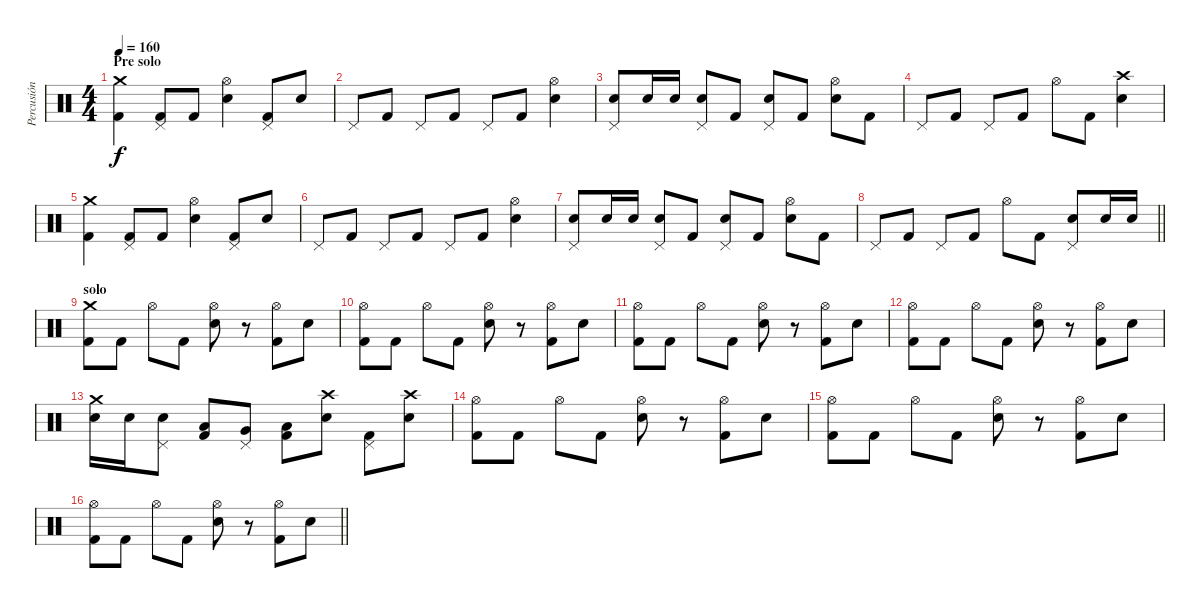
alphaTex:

\track ("Percusión" "Percusión") {instrument percussion}
\staff {score}
\articulation defaults
\ts (4 4)
\section ("" "Pre solo")
\tempo 160
\clef neutral
\ks c
("Crash medium (hit)" "Kick (hit) 2").4{dy f} ("Pedal Hi-Hat (hit)" "Kick (hit) 2").8 "Kick (hit) 2".8 ("Hi-Hat (open)" "Snare (hit) 2").4 ("Pedal Hi-Hat (hit)" "Kick (hit) 2").8 "Snare (hit) 2".8 |
"Pedal Hi-Hat (hit)".8 "Kick (hit) 2".8 "Pedal Hi-Hat (hit)".8 "Kick (hit) 2".8 "Pedal Hi-Hat (hit)".8 "Kick (hit) 2".8 ("Hi-Hat (open)" "Snare (hit) 2").4 |
("Pedal Hi-Hat (hit)" "Snare (hit) 2").8 "Snare (hit) 2".16 "Snare (hit) 2".16 ("Pedal Hi-Hat (hit)" "Snare (hit) 2").8 "Kick (hit) 2".8 ("Pedal Hi-Hat (hit)" "Snare (hit) 2").8 "Kick (hit) 2".8 ("Hi-Hat (open)" "Snare (hit) 2").8 "Kick (hit) 2".8 |
"Pedal Hi-Hat (hit)".8 "Kick (hit) 2".8 "Pedal Hi-Hat (hit)".8 "Kick (hit) 2".8 "Hi-Hat (open)".8 "Kick (hit) 2".8 ("Crash high (hit)" "Snare (hit) 2").4 |
("Crash medium (hit)" "Kick (hit) 2").4 ("Pedal Hi-Hat (hit)" "Kick (hit) 2").8 "Kick (hit) 2".8 ("Hi-Hat (open)" "Snare (hit) 2").4 ("Pedal Hi-Hat (hit)" "Kick (hit) 2").8 "Snare (hit) 2".8 |
"Pedal Hi-Hat (hit)".8 "Kick (hit) 2".8 "Pedal Hi-Hat (hit)".8 "Kick (hit) 2".8 "Pedal Hi-Hat (hit)".8 "Kick (hit) 2".8 ("Hi-Hat (open)" "Snare (hit) 2").4 |
("Pedal Hi-Hat (hit)" "Snare (hit) 2").8 "Snare (hit) 2".16 "Snare (hit) 2".16 ("Pedal Hi-Hat (hit)" "Snare (hit) 2").8 "Kick (hit) 2".8 ("Pedal Hi-Hat (hit)" "Snare (hit) 2").8 "Kick (hit) 2".8 ("Hi-Hat (open)" "Snare (hit) 2").8 "Kick (hit) 2".8 |
\barLineRight lightlight "Pedal Hi-Hat (hit)".8 "Kick (hit) 2".8 "Pedal Hi-Hat (hit)".8 "Kick (hit) 2".8 "Hi-Hat (open)".8 "Kick (hit) 2".8
("Pedal Hi-Hat (hit)" "Snare (hit) 2").8 "Snare (hit) 2".16 "Snare (hit) 2".16 |
\section ("" "solo")
("Crash medium (hit)" "Kick (hit) 2").8 "Kick (hit) 2".8 "Hi-Hat (open)".8 "Kick (hit) 2".8 ("Hi-Hat (open)" "Snare (hit) 2").8 r.8 ("Hi-Hat (open)" "Kick (hit) 2").8 "Snare (hit) 2".8 |
("Hi-Hat (open)" "Kick (hit) 2").8 "Kick (hit) 2".8 "Hi-Hat (open)".8 "Kick (hit) 2".8 ("Hi-Hat (open)" "Snare (hit) 2").8 r.8 ("Hi-Hat (open)" "Kick (hit) 2").8 "Snare (hit) 2".8 |
("Hi-Hat (open)" "Kick (hit) 2").8 "Kick (hit) 2".8 "Hi-Hat (open)".8 "Kick (hit) 2".8 ("Hi-Hat (open)" "Snare (hit) 2").8 r.8 ("Hi-Hat (open)" "Kick (hit) 2").8 "Snare (hit) 2".8 |
("Hi-Hat (open)" "Kick (hit) 2").8 "Kick (hit) 2".8 "Hi-Hat (open)".8 "Kick (hit) 2".8 ("Hi-Hat (open)" "Snare (hit) 2").8 r.8 ("Hi-Hat (open)" "Kick (hit) 2").8 "Snare (hit) 2".8 |
("Crash medium (hit)" "Snare (hit) 2").16 "Snare (hit) 2".16 ("Pedal Hi-Hat (hit)" "Snare (hit) 2").8 ("Low Tom (hit)" "Kick (hit) 2").8 ("Pedal Hi-Hat (hit)" "Very Low Tom (hit)").8 ("Low Floor Tom (hit)" "Kick (hit) 2").8 ("Crash high (hit)" "Snare (hit) 2").8 ("Pedal Hi-Hat (hit)" "Kick (hit) 2").8 ("Crash high (hit)" "Snare (hit) 2").8 |
("Hi-Hat (open)" "Kick (hit) 2").8 "Kick (hit) 2".8 "Hi-Hat (open)".8 "Kick (hit) 2".8 ("Hi-Hat (open)" "Snare (hit) 2").8 r.8 ("Hi-Hat (open)" "Kick (hit) 2").8 "Snare (hit) 2".8 |
("Hi-Hat (open)" "Kick (hit) 2").8 "Kick (hit) 2".8 "Hi-Hat (open)".8 "Kick (hit) 2".8 ("Hi-Hat (open)" "Snare (hit) 2").8 r.8 ("Hi-Hat (open)" "Kick (hit) 2").8 "Snare (hit) 2".8 |
\barLineRight lightlight
("Hi-Hat (open)" "Kick (hit) 2").8 "Kick (hit) 2".8 "Hi-Hat (open)".8 "Kick (hit) 2".8 ("Hi-Hat (open)" "Snare (hit) 2").8 r.8 ("Hi-Hat (open)" "Kick (hit) 2").8 "Snare (hit) 2".8
